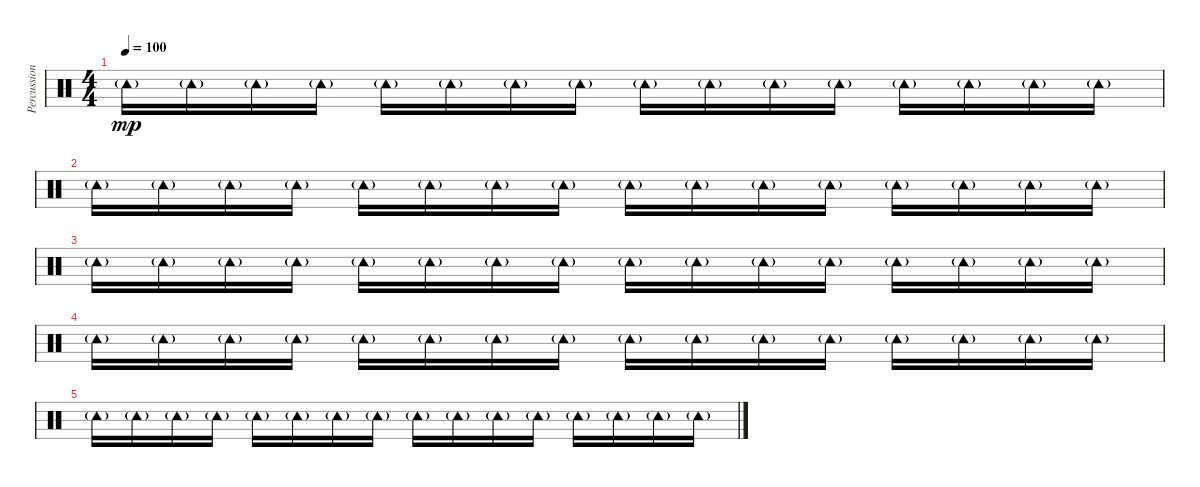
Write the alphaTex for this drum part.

\track ("Percussion" "Percussion") {instrument percussion}
\staff {score}
\articulation defaults
\ts (4 4)
\tempo 100
\clef neutral
\ks c "Tambourine (hit)"{g}.16{dy mp} "Tambourine (hit)"{g}.16 "Tambourine (hit)"{g}.16 "Tambourine (hit)"{g}.16 "Tambourine (hit)"{g}.16 "Tambourine (hit)"{g}.16 "Tambourine (hit)"{g}.16 "Tambourine (hit)"{g}.16 "Tambourine (hit)"{g}.16 "Tambourine (hit)"{g}.16 "Tambourine (hit)"{g}.16 "Tambourine (hit)"{g}.16 "Tambourine (hit)"{g}.16 "Tambourine (hit)"{g}.16 "Tambourine (hit)"{g}.16 "Tambourine (hit)"{g}.16
|
"Tambourine (hit)"{g}.16 "Tambourine (hit)"{g}.16 "Tambourine (hit)"{g}.16 "Tambourine (hit)"{g}.16 "Tambourine (hit)"{g}.16 "Tambourine (hit)"{g}.16 "Tambourine (hit)"{g}.16 "Tambourine (hit)"{g}.16 "Tambourine (hit)"{g}.16 "Tambourine (hit)"{g}.16 "Tambourine (hit)"{g}.16 "Tambourine (hit)"{g}.16 "Tambourine (hit)"{g}.16 "Tambourine (hit)"{g}.16 "Tambourine (hit)"{g}.16 "Tambourine (hit)"{g}.16 |
"Tambourine (hit)"{g}.16 "Tambourine (hit)"{g}.16 "Tambourine (hit)"{g}.16 "Tambourine (hit)"{g}.16 "Tambourine (hit)"{g}.16 "Tambourine (hit)"{g}.16 "Tambourine (hit)"{g}.16 "Tambourine (hit)"{g}.16 "Tambourine (hit)"{g}.16 "Tambourine (hit)"{g}.16 "Tambourine (hit)"{g}.16 "Tambourine (hit)"{g}.16 "Tambourine (hit)"{g}.16 "Tambourine (hit)"{g}.16 "Tambourine (hit)"{g}.16 "Tambourine (hit)"{g}.16 |
"Tambourine (hit)"{g}.16 "Tambourine (hit)"{g}.16 "Tambourine (hit)"{g}.16 "Tambourine (hit)"{g}.16 "Tambourine (hit)"{g}.16 "Tambourine (hit)"{g}.16 "Tambourine (hit)"{g}.16 "Tambourine (hit)"{g}.16 "Tambourine (hit)"{g}.16 "Tambourine (hit)"{g}.16 "Tambourine (hit)"{g}.16 "Tambourine (hit)"{g}.16 "Tambourine (hit)"{g}.16 "Tambourine (hit)"{g}.16 "Tambourine (hit)"{g}.16 "Tambourine (hit)"{g}.16 |
"Tambourine (hit)"{g}.16 "Tambourine (hit)"{g}.16 "Tambourine (hit)"{g}.16 "Tambourine (hit)"{g}.16 "Tambourine (hit)"{g}.16 "Tambourine (hit)"{g}.16 "Tambourine (hit)"{g}.16 "Tambourine (hit)"{g}.16 "Tambourine (hit)"{g}.16 "Tambourine (hit)"{g}.16 "Tambourine (hit)"{g}.16 "Tambourine (hit)"{g}.16 "Tambourine (hit)"{g}.16 "Tambourine (hit)"{g}.16 "Tambourine (hit)"{g}.16 "Tambourine (hit)"{g}.16
